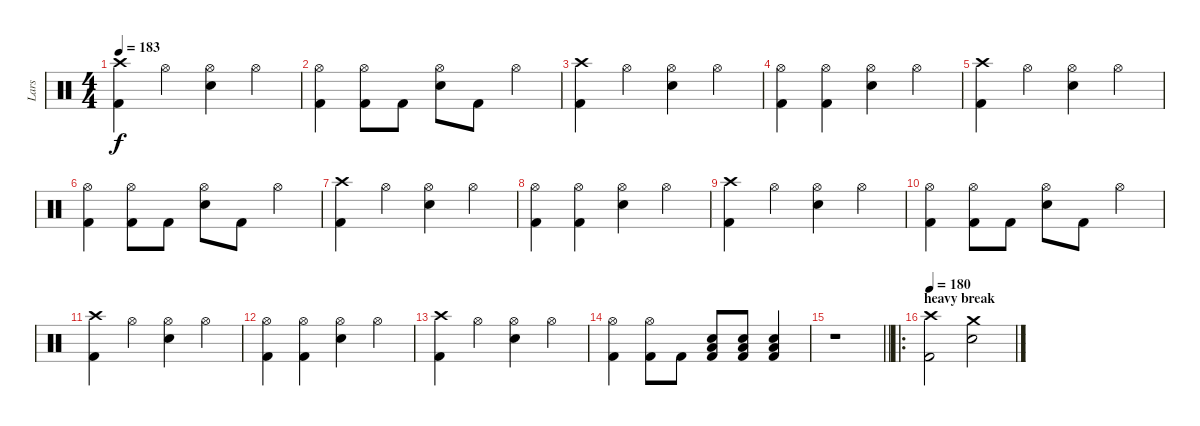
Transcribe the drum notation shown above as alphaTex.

\track ("Lars" "Lars") {instrument percussion}
\staff {score}
\articulation defaults
\ts (4 4)
\tempo 183
\clef neutral
\ks c
("Crash high (hit)" "Kick (hit) 2").4{dy f} "Hi-Hat (open)".4 ("Hi-Hat (open)" "Snare (hit) 2").4 "Hi-Hat (open)".4 |
("Hi-Hat (open)" "Kick (hit) 2").4 ("Hi-Hat (open)" "Kick (hit) 2").8 "Kick (hit) 2".8 ("Hi-Hat (open)" "Snare (hit) 2").8 "Kick (hit) 2".8 "Hi-Hat (open)".4 |
("Crash high (hit)" "Kick (hit) 2").4 "Hi-Hat (open)".4 ("Hi-Hat (open)" "Snare (hit) 2").4 "Hi-Hat (open)".4 |
("Hi-Hat (open)" "Kick (hit) 2").4 ("Hi-Hat (open)" "Kick (hit) 2").4 ("Hi-Hat (open)" "Snare (hit) 2").4 "Hi-Hat (open)".4 |
("Crash high (hit)" "Kick (hit) 2").4 "Hi-Hat (open)".4 ("Hi-Hat (open)" "Snare (hit) 2").4 "Hi-Hat (open)".4 |
("Hi-Hat (open)" "Kick (hit) 2").4 ("Hi-Hat (open)" "Kick (hit) 2").8 "Kick (hit) 2".8 ("Hi-Hat (open)" "Snare (hit) 2").8 "Kick (hit) 2".8 "Hi-Hat (open)".4 |
("Crash high (hit)" "Kick (hit) 2").4 "Hi-Hat (open)".4 ("Hi-Hat (open)" "Snare (hit) 2").4 "Hi-Hat (open)".4 |
("Hi-Hat (open)" "Kick (hit) 2").4 ("Hi-Hat (open)" "Kick (hit) 2").4 ("Hi-Hat (open)" "Snare (hit) 2").4 "Hi-Hat (open)".4 |
("Crash high (hit)" "Kick (hit) 2").4 "Hi-Hat (open)".4 ("Hi-Hat (open)" "Snare (hit) 2").4 "Hi-Hat (open)".4 |
("Hi-Hat (open)" "Kick (hit) 2").4 ("Hi-Hat (open)" "Kick (hit) 2").8 "Kick (hit) 2".8 ("Hi-Hat (open)" "Snare (hit) 2").8 "Kick (hit) 2".8 "Hi-Hat (open)".4 |
("Crash high (hit)" "Kick (hit) 2").4 "Hi-Hat (open)".4 ("Hi-Hat (open)" "Snare (hit) 2").4 "Hi-Hat (open)".4 |
("Hi-Hat (open)" "Kick (hit) 2").4 ("Hi-Hat (open)" "Kick (hit) 2").4 ("Hi-Hat (open)" "Snare (hit) 2").4 "Hi-Hat (open)".4 |
("Crash high (hit)" "Kick (hit) 2").4 "Hi-Hat (open)".4 ("Hi-Hat (open)" "Snare (hit) 2").4 "Hi-Hat (open)".4 |
("Hi-Hat (open)" "Kick (hit) 2").4 ("Hi-Hat (open)" "Kick (hit) 2").8 "Kick (hit) 2".8 ("Snare (hit) 2" "Low Floor Tom (hit)" "Kick (hit) 2").8 ("Snare (hit) 2" "Low Floor Tom (hit)" "Kick (hit) 2").8 ("Snare (hit) 2" "Low Floor Tom (hit)" "Kick (hit) 2").4 |
\barLineRight lightlight
r.1 |
\ro
\section ("" "heavy break")
\tempo 180
("Crash high (hit)" "Kick (hit) 2").2 ("Crash medium (hit)" "Snare (hit) 2").2
